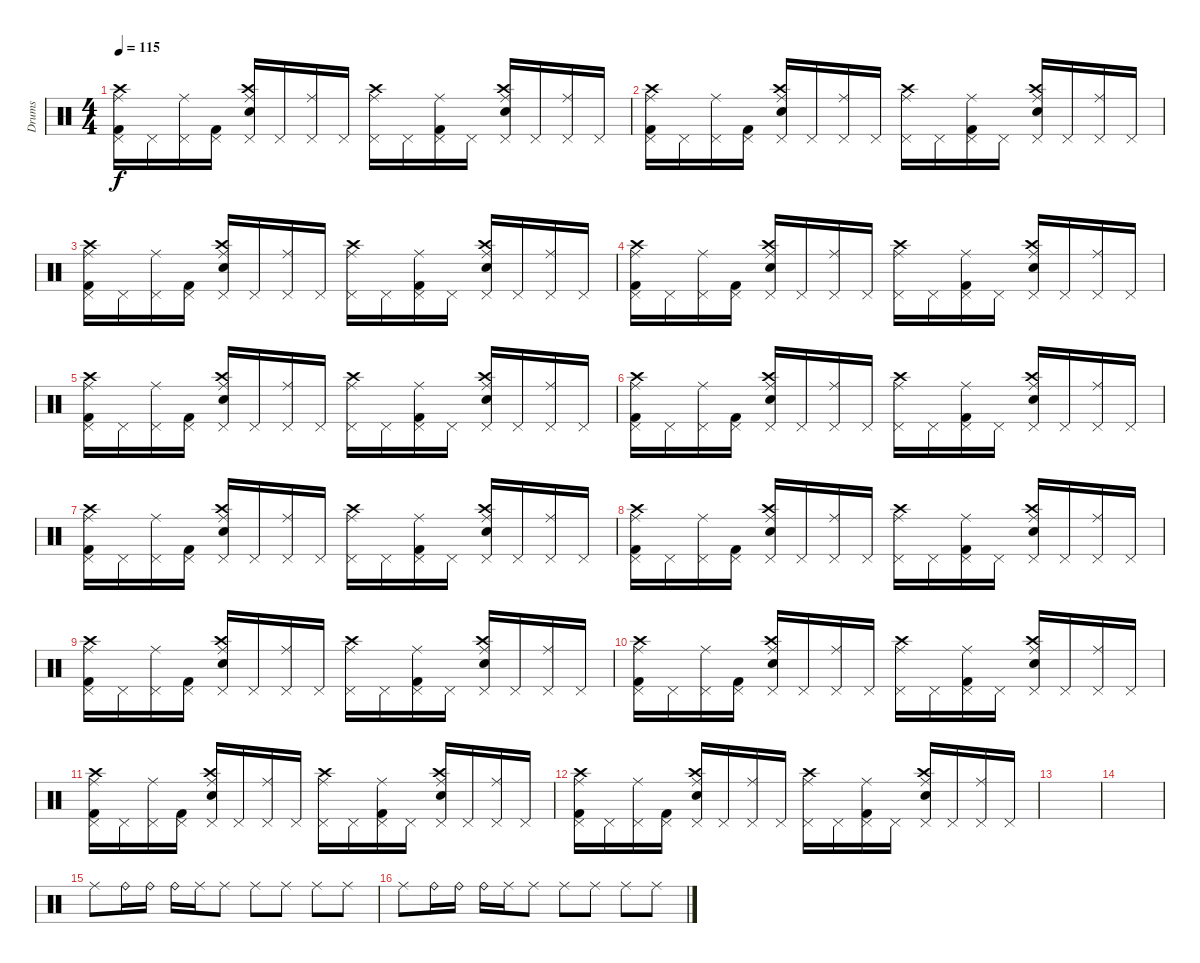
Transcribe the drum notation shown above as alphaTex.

\track ("Drums" "Drums") {instrument percussion}
\staff {score}
\articulation defaults
\ts (4 4)
\tempo 115
\clef neutral
\ks c
("Pedal Hi-Hat (hit)" "Kick (hit) 2" "Ride (middle)" "Crash high (hit)").16{dy f} "Pedal Hi-Hat (hit)".16 ("Pedal Hi-Hat (hit)" "Ride (middle)").16 ("Pedal Hi-Hat (hit)" "Kick (hit) 2").16 ("Pedal Hi-Hat (hit)" "Snare (hit) 2" "Ride (middle)" "Crash high (hit)").16 "Pedal Hi-Hat (hit)".16 ("Pedal Hi-Hat (hit)" "Ride (middle)").16 "Pedal Hi-Hat (hit)".16 ("Pedal Hi-Hat (hit)" "Ride (middle)" "Crash high (hit)").16 "Pedal Hi-Hat (hit)".16 ("Pedal Hi-Hat (hit)" "Kick (hit) 2" "Ride (middle)").16 "Pedal Hi-Hat (hit)".16 ("Pedal Hi-Hat (hit)" "Snare (hit) 2" "Ride (middle)" "Crash high (hit)").16 "Pedal Hi-Hat (hit)".16 ("Pedal Hi-Hat (hit)" "Ride (middle)").16 "Pedal Hi-Hat (hit)".16 |
("Pedal Hi-Hat (hit)" "Kick (hit) 2" "Ride (middle)" "Crash high (hit)").16 "Pedal Hi-Hat (hit)".16 ("Pedal Hi-Hat (hit)" "Ride (middle)").16 ("Pedal Hi-Hat (hit)" "Kick (hit) 2").16 ("Pedal Hi-Hat (hit)" "Snare (hit) 2" "Ride (middle)" "Crash high (hit)").16 "Pedal Hi-Hat (hit)".16 ("Pedal Hi-Hat (hit)" "Ride (middle)").16 "Pedal Hi-Hat (hit)".16 ("Pedal Hi-Hat (hit)" "Ride (middle)" "Crash high (hit)").16 "Pedal Hi-Hat (hit)".16 ("Pedal Hi-Hat (hit)" "Kick (hit) 2" "Ride (middle)").16 "Pedal Hi-Hat (hit)".16 ("Pedal Hi-Hat (hit)" "Snare (hit) 2" "Ride (middle)" "Crash high (hit)").16 "Pedal Hi-Hat (hit)".16 ("Pedal Hi-Hat (hit)" "Ride (middle)").16 "Pedal Hi-Hat (hit)".16 |
("Pedal Hi-Hat (hit)" "Kick (hit) 2" "Ride (middle)" "Crash high (hit)").16 "Pedal Hi-Hat (hit)".16 ("Pedal Hi-Hat (hit)" "Ride (middle)").16 ("Pedal Hi-Hat (hit)" "Kick (hit) 2").16 ("Pedal Hi-Hat (hit)" "Snare (hit) 2" "Ride (middle)" "Crash high (hit)").16 "Pedal Hi-Hat (hit)".16 ("Pedal Hi-Hat (hit)" "Ride (middle)").16 "Pedal Hi-Hat (hit)".16 ("Pedal Hi-Hat (hit)" "Ride (middle)" "Crash high (hit)").16 "Pedal Hi-Hat (hit)".16 ("Pedal Hi-Hat (hit)" "Kick (hit) 2" "Ride (middle)").16 "Pedal Hi-Hat (hit)".16 ("Pedal Hi-Hat (hit)" "Snare (hit) 2" "Ride (middle)" "Crash high (hit)").16 "Pedal Hi-Hat (hit)".16 ("Pedal Hi-Hat (hit)" "Ride (middle)").16 "Pedal Hi-Hat (hit)".16 |
("Pedal Hi-Hat (hit)" "Kick (hit) 2" "Ride (middle)" "Crash high (hit)").16 "Pedal Hi-Hat (hit)".16 ("Pedal Hi-Hat (hit)" "Ride (middle)").16 ("Pedal Hi-Hat (hit)" "Kick (hit) 2").16 ("Pedal Hi-Hat (hit)" "Snare (hit) 2" "Ride (middle)" "Crash high (hit)").16 "Pedal Hi-Hat (hit)".16 ("Pedal Hi-Hat (hit)" "Ride (middle)").16 "Pedal Hi-Hat (hit)".16 ("Pedal Hi-Hat (hit)" "Ride (middle)" "Crash high (hit)").16 "Pedal Hi-Hat (hit)".16 ("Pedal Hi-Hat (hit)" "Kick (hit) 2" "Ride (middle)").16 "Pedal Hi-Hat (hit)".16 ("Pedal Hi-Hat (hit)" "Snare (hit) 2" "Ride (middle)" "Crash high (hit)").16 "Pedal Hi-Hat (hit)".16 ("Pedal Hi-Hat (hit)" "Ride (middle)").16 "Pedal Hi-Hat (hit)".16 |
("Pedal Hi-Hat (hit)" "Kick (hit) 2" "Ride (middle)" "Crash high (hit)").16 "Pedal Hi-Hat (hit)".16 ("Pedal Hi-Hat (hit)" "Ride (middle)").16 ("Pedal Hi-Hat (hit)" "Kick (hit) 2").16 ("Pedal Hi-Hat (hit)" "Snare (hit) 2" "Ride (middle)" "Crash high (hit)").16 "Pedal Hi-Hat (hit)".16 ("Pedal Hi-Hat (hit)" "Ride (middle)").16 "Pedal Hi-Hat (hit)".16 ("Pedal Hi-Hat (hit)" "Ride (middle)" "Crash high (hit)").16 "Pedal Hi-Hat (hit)".16 ("Pedal Hi-Hat (hit)" "Kick (hit) 2" "Ride (middle)").16 "Pedal Hi-Hat (hit)".16 ("Pedal Hi-Hat (hit)" "Snare (hit) 2" "Ride (middle)" "Crash high (hit)").16 "Pedal Hi-Hat (hit)".16 ("Pedal Hi-Hat (hit)" "Ride (middle)").16 "Pedal Hi-Hat (hit)".16 |
("Pedal Hi-Hat (hit)" "Kick (hit) 2" "Ride (middle)" "Crash high (hit)").16 "Pedal Hi-Hat (hit)".16 ("Pedal Hi-Hat (hit)" "Ride (middle)").16 ("Pedal Hi-Hat (hit)" "Kick (hit) 2").16 ("Pedal Hi-Hat (hit)" "Snare (hit) 2" "Ride (middle)" "Crash high (hit)").16 "Pedal Hi-Hat (hit)".16 ("Pedal Hi-Hat (hit)" "Ride (middle)").16 "Pedal Hi-Hat (hit)".16 ("Pedal Hi-Hat (hit)" "Ride (middle)" "Crash high (hit)").16 "Pedal Hi-Hat (hit)".16 ("Pedal Hi-Hat (hit)" "Kick (hit) 2" "Ride (middle)").16 "Pedal Hi-Hat (hit)".16 ("Pedal Hi-Hat (hit)" "Snare (hit) 2" "Ride (middle)" "Crash high (hit)").16 "Pedal Hi-Hat (hit)".16 ("Pedal Hi-Hat (hit)" "Ride (middle)").16 "Pedal Hi-Hat (hit)".16 |
("Pedal Hi-Hat (hit)" "Kick (hit) 2" "Ride (middle)" "Crash high (hit)").16 "Pedal Hi-Hat (hit)".16 ("Pedal Hi-Hat (hit)" "Ride (middle)").16 ("Pedal Hi-Hat (hit)" "Kick (hit) 2").16 ("Pedal Hi-Hat (hit)" "Snare (hit) 2" "Ride (middle)" "Crash high (hit)").16 "Pedal Hi-Hat (hit)".16 ("Pedal Hi-Hat (hit)" "Ride (middle)").16 "Pedal Hi-Hat (hit)".16 ("Pedal Hi-Hat (hit)" "Ride (middle)" "Crash high (hit)").16 "Pedal Hi-Hat (hit)".16 ("Pedal Hi-Hat (hit)" "Kick (hit) 2" "Ride (middle)").16 "Pedal Hi-Hat (hit)".16 ("Pedal Hi-Hat (hit)" "Snare (hit) 2" "Ride (middle)" "Crash high (hit)").16 "Pedal Hi-Hat (hit)".16 ("Pedal Hi-Hat (hit)" "Ride (middle)").16 "Pedal Hi-Hat (hit)".16 |
("Pedal Hi-Hat (hit)" "Kick (hit) 2" "Ride (middle)" "Crash high (hit)").16 "Pedal Hi-Hat (hit)".16 ("Pedal Hi-Hat (hit)" "Ride (middle)").16 ("Pedal Hi-Hat (hit)" "Kick (hit) 2").16 ("Pedal Hi-Hat (hit)" "Snare (hit) 2" "Ride (middle)" "Crash high (hit)").16 "Pedal Hi-Hat (hit)".16 ("Pedal Hi-Hat (hit)" "Ride (middle)").16 "Pedal Hi-Hat (hit)".16 ("Pedal Hi-Hat (hit)" "Ride (middle)" "Crash high (hit)").16 "Pedal Hi-Hat (hit)".16 ("Pedal Hi-Hat (hit)" "Kick (hit) 2" "Ride (middle)").16 "Pedal Hi-Hat (hit)".16 ("Pedal Hi-Hat (hit)" "Snare (hit) 2" "Ride (middle)" "Crash high (hit)").16 "Pedal Hi-Hat (hit)".16 ("Pedal Hi-Hat (hit)" "Ride (middle)").16 "Pedal Hi-Hat (hit)".16 |
("Pedal Hi-Hat (hit)" "Kick (hit) 2" "Ride (middle)" "Crash high (hit)").16 "Pedal Hi-Hat (hit)".16 ("Pedal Hi-Hat (hit)" "Ride (middle)").16 ("Pedal Hi-Hat (hit)" "Kick (hit) 2").16 ("Pedal Hi-Hat (hit)" "Snare (hit) 2" "Ride (middle)" "Crash high (hit)").16 "Pedal Hi-Hat (hit)".16 ("Pedal Hi-Hat (hit)" "Ride (middle)").16 "Pedal Hi-Hat (hit)".16 ("Pedal Hi-Hat (hit)" "Ride (middle)" "Crash high (hit)").16 "Pedal Hi-Hat (hit)".16 ("Pedal Hi-Hat (hit)" "Kick (hit) 2" "Ride (middle)").16 "Pedal Hi-Hat (hit)".16 ("Pedal Hi-Hat (hit)" "Snare (hit) 2" "Ride (middle)" "Crash high (hit)").16 "Pedal Hi-Hat (hit)".16 ("Pedal Hi-Hat (hit)" "Ride (middle)").16 "Pedal Hi-Hat (hit)".16 |
("Pedal Hi-Hat (hit)" "Kick (hit) 2" "Ride (middle)" "Crash high (hit)").16 "Pedal Hi-Hat (hit)".16 ("Pedal Hi-Hat (hit)" "Ride (middle)").16 ("Pedal Hi-Hat (hit)" "Kick (hit) 2").16 ("Pedal Hi-Hat (hit)" "Snare (hit) 2" "Ride (middle)" "Crash high (hit)").16 "Pedal Hi-Hat (hit)".16 ("Pedal Hi-Hat (hit)" "Ride (middle)").16 "Pedal Hi-Hat (hit)".16 ("Pedal Hi-Hat (hit)" "Ride (middle)" "Crash high (hit)").16 "Pedal Hi-Hat (hit)".16 ("Pedal Hi-Hat (hit)" "Kick (hit) 2" "Ride (middle)").16 "Pedal Hi-Hat (hit)".16 ("Pedal Hi-Hat (hit)" "Snare (hit) 2" "Ride (middle)" "Crash high (hit)").16 "Pedal Hi-Hat (hit)".16 ("Pedal Hi-Hat (hit)" "Ride (middle)").16 "Pedal Hi-Hat (hit)".16 |
("Pedal Hi-Hat (hit)" "Kick (hit) 2" "Ride (middle)" "Crash high (hit)").16 "Pedal Hi-Hat (hit)".16 ("Pedal Hi-Hat (hit)" "Ride (middle)").16 ("Pedal Hi-Hat (hit)" "Kick (hit) 2").16 ("Pedal Hi-Hat (hit)" "Snare (hit) 2" "Ride (middle)" "Crash high (hit)").16 "Pedal Hi-Hat (hit)".16 ("Pedal Hi-Hat (hit)" "Ride (middle)").16 "Pedal Hi-Hat (hit)".16 ("Pedal Hi-Hat (hit)" "Ride (middle)" "Crash high (hit)").16 "Pedal Hi-Hat (hit)".16 ("Pedal Hi-Hat (hit)" "Kick (hit) 2" "Ride (middle)").16 "Pedal Hi-Hat (hit)".16 ("Pedal Hi-Hat (hit)" "Snare (hit) 2" "Ride (middle)" "Crash high (hit)").16 "Pedal Hi-Hat (hit)".16 ("Pedal Hi-Hat (hit)" "Ride (middle)").16 "Pedal Hi-Hat (hit)".16 |
("Pedal Hi-Hat (hit)" "Kick (hit) 2" "Ride (middle)" "Crash high (hit)").16 "Pedal Hi-Hat (hit)".16 ("Pedal Hi-Hat (hit)" "Ride (middle)").16 ("Pedal Hi-Hat (hit)" "Kick (hit) 2").16 ("Pedal Hi-Hat (hit)" "Snare (hit) 2" "Ride (middle)" "Crash high (hit)").16 "Pedal Hi-Hat (hit)".16 ("Pedal Hi-Hat (hit)" "Ride (middle)").16 "Pedal Hi-Hat (hit)".16 ("Pedal Hi-Hat (hit)" "Ride (middle)" "Crash high (hit)").16 "Pedal Hi-Hat (hit)".16 ("Pedal Hi-Hat (hit)" "Kick (hit) 2" "Ride (middle)").16 "Pedal Hi-Hat (hit)".16 ("Pedal Hi-Hat (hit)" "Snare (hit) 2" "Ride (middle)" "Crash high (hit)").16 "Pedal Hi-Hat (hit)".16 ("Pedal Hi-Hat (hit)" "Ride (middle)").16 "Pedal Hi-Hat (hit)".16 |
|
|
"Ride (middle)".8 "Ride (bell)".16 "Ride (bell)".16 "Ride (bell)".16 "Ride (middle)".16 "Ride (middle)".8 "Ride (middle)".8 "Ride (middle)".8 "Ride (middle)".8 "Ride (middle)".8 |
"Ride (middle)".8 "Ride (bell)".16 "Ride (bell)".16 "Ride (bell)".16 "Ride (middle)".16 "Ride (middle)".8 "Ride (middle)".8 "Ride (middle)".8 "Ride (middle)".8 "Ride (middle)".8
